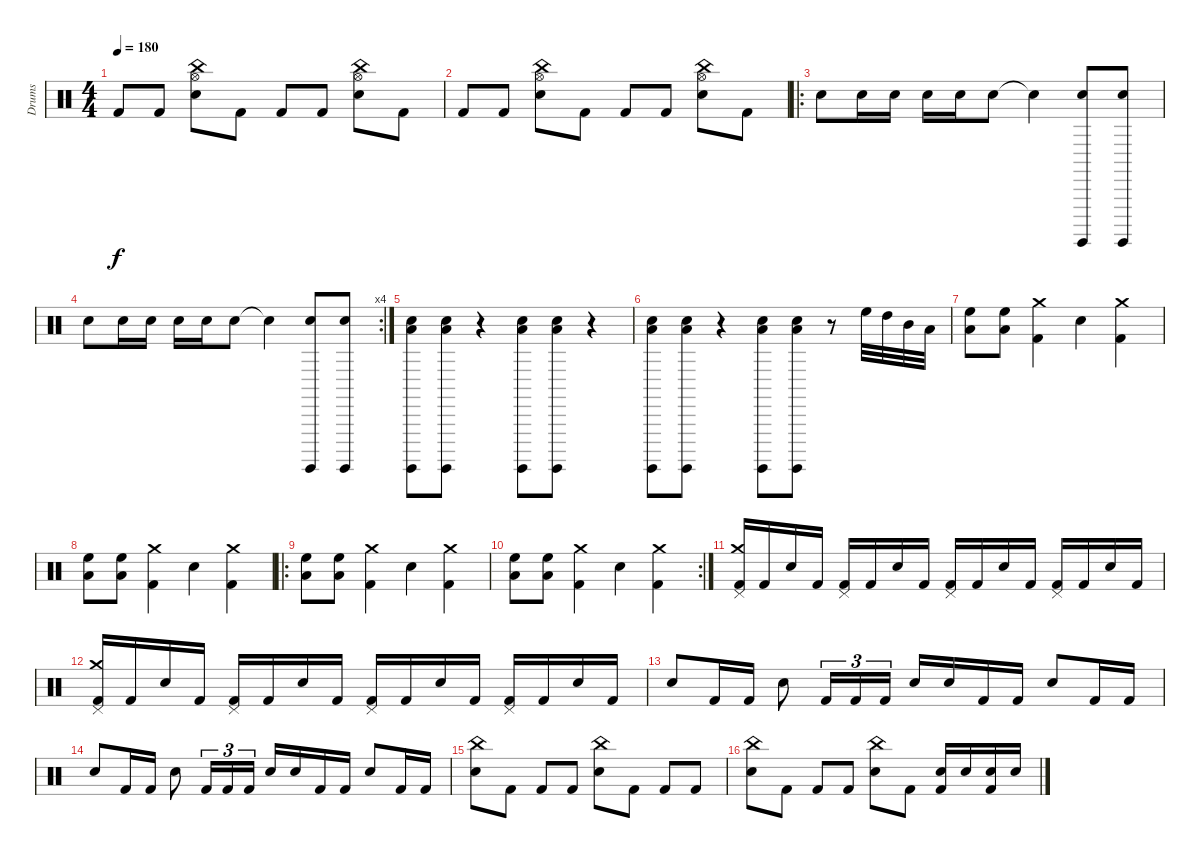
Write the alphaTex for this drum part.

\track ("Drums" "Drums") {instrument percussion}
\staff {score}
\articulation defaults
\ts (4 4)
\tempo 180
\clef neutral
\ks c "Kick (hit) 2".8{dy f} "Kick (hit) 2".8
("Electric Snare (hit)" "Hi-Hat (open)" "China (hit)").8 "Kick (hit) 2".8 "Kick (hit) 2".8 "Kick (hit) 2".8 ("Electric Snare (hit)" "Hi-Hat (open)" "China (hit)").8 "Kick (hit) 2".8 |
"Kick (hit) 2".8 "Kick (hit) 2".8 ("Electric Snare (hit)" "Hi-Hat (open)" "China (hit)").8 "Kick (hit) 2".8 "Kick (hit) 2".8 "Kick (hit) 2".8 ("Electric Snare (hit)" "Hi-Hat (open)" "China (hit)").8 "Kick (hit) 2".8 |
\ro "Electric Snare (hit)".8 "Electric Snare (hit)".16 "Electric Snare (hit)".16 "Electric Snare (hit)".16 "Electric Snare (hit)".16 "Electric Snare (hit)".8 "Electric Snare (hit)"{t}.4
("Electric Snare (hit)" "Surdo (hit)").8 ("Electric Snare (hit)" "Surdo (hit)").8 |
\rc 4 "Electric Snare (hit)".8 "Electric Snare (hit)".16 "Electric Snare (hit)".16 "Electric Snare (hit)".16 "Electric Snare (hit)".16 "Electric Snare (hit)".8 "Electric Snare (hit)"{t}.4
("Electric Snare (hit)" "Surdo (hit)").8 ("Electric Snare (hit)" "Surdo (hit)").8 |
("Surdo (hit)" "Electric Snare (hit)" "Low Tom (hit)").8 ("Surdo (hit)" "Electric Snare (hit)" "Low Tom (hit)").8 r.4 ("Surdo (hit)" "Electric Snare (hit)" "Low Tom (hit)").8 ("Surdo (hit)" "Electric Snare (hit)" "Low Tom (hit)").8 r.4 |
("Surdo (hit)" "Electric Snare (hit)" "Low Tom (hit)").8 ("Surdo (hit)" "Electric Snare (hit)" "Low Tom (hit)").8 r.4 ("Surdo (hit)" "Electric Snare (hit)" "Low Tom (hit)").8 ("Surdo (hit)" "Electric Snare (hit)" "Low Tom (hit)").8 r.8 "High Floor Tom (hit)".32 "High Tom (hit)".32 "Mid Tom (hit)".32 "Low Tom (hit)".32 |
("Low Tom (hit)" "High Floor Tom (hit)").8 ("Low Tom (hit)" "High Floor Tom (hit)").8 ("Crash medium (hit)" "Kick (hit) 2").4 "Electric Snare (hit)".4 ("Kick (hit) 2" "Crash medium (hit)").4 |
("Low Tom (hit)" "High Floor Tom (hit)").8 ("Low Tom (hit)" "High Floor Tom (hit)").8 ("Crash medium (hit)" "Kick (hit) 2").4 "Electric Snare (hit)".4 ("Kick (hit) 2" "Crash medium (hit)").4 |
\ro
("Low Tom (hit)" "High Floor Tom (hit)").8 ("Low Tom (hit)" "High Floor Tom (hit)").8 ("Crash medium (hit)" "Kick (hit) 2").4 "Electric Snare (hit)".4 ("Kick (hit) 2" "Crash medium (hit)").4 |
\rc 2
("Low Tom (hit)" "High Floor Tom (hit)").8 ("Low Tom (hit)" "High Floor Tom (hit)").8 ("Crash medium (hit)" "Kick (hit) 2").4 "Electric Snare (hit)".4 ("Kick (hit) 2" "Crash medium (hit)").4 |
("Kick (hit) 2" "Pedal Hi-Hat (hit)" "Crash medium (hit)").16 "Kick (hit) 2".16 "Electric Snare (hit)".16 "Kick (hit) 2".16 ("Kick (hit) 2" "Pedal Hi-Hat (hit)").16 "Kick (hit) 2".16 "Electric Snare (hit)".16 "Kick (hit) 2".16 ("Kick (hit) 2" "Pedal Hi-Hat (hit)").16 "Kick (hit) 2".16 "Electric Snare (hit)".16 "Kick (hit) 2".16 ("Kick (hit) 2" "Pedal Hi-Hat (hit)").16 "Kick (hit) 2".16 "Electric Snare (hit)".16 "Kick (hit) 2".16 |
("Kick (hit) 2" "Pedal Hi-Hat (hit)" "Crash medium (hit)").16 "Kick (hit) 2".16 "Electric Snare (hit)".16 "Kick (hit) 2".16 ("Kick (hit) 2" "Pedal Hi-Hat (hit)").16 "Kick (hit) 2".16 "Electric Snare (hit)".16 "Kick (hit) 2".16 ("Kick (hit) 2" "Pedal Hi-Hat (hit)").16 "Kick (hit) 2".16 "Electric Snare (hit)".16 "Kick (hit) 2".16 ("Kick (hit) 2" "Pedal Hi-Hat (hit)").16 "Kick (hit) 2".16 "Electric Snare (hit)".16 "Kick (hit) 2".16 |
"Electric Snare (hit)".8 "Kick (hit) 2".16 "Kick (hit) 2".16 "Electric Snare (hit)".8 "Kick (hit) 2".16{tu (3 2)} "Kick (hit) 2".16{tu (3 2)} "Kick (hit) 2".16{tu (3 2)} "Electric Snare (hit)".16 "Electric Snare (hit)".16 "Kick (hit) 2".16 "Kick (hit) 2".16 "Electric Snare (hit)".8 "Kick (hit) 2".16 "Kick (hit) 2".16 |
"Electric Snare (hit)".8 "Kick (hit) 2".16 "Kick (hit) 2".16 "Electric Snare (hit)".8 "Kick (hit) 2".16{tu (3 2)} "Kick (hit) 2".16{tu (3 2)} "Kick (hit) 2".16{tu (3 2)} "Electric Snare (hit)".16 "Electric Snare (hit)".16 "Kick (hit) 2".16 "Kick (hit) 2".16 "Electric Snare (hit)".8 "Kick (hit) 2".16 "Kick (hit) 2".16 |
("China (hit)" "Electric Snare (hit)").8 "Kick (hit) 2".8 "Kick (hit) 2".8 "Kick (hit) 2".8 ("China (hit)" "Electric Snare (hit)").8 "Kick (hit) 2".8 "Kick (hit) 2".8 "Kick (hit) 2".8 |
("China (hit)" "Electric Snare (hit)").8 "Kick (hit) 2".8 "Kick (hit) 2".8 "Kick (hit) 2".8 ("China (hit)" "Electric Snare (hit)").8 "Kick (hit) 2".8 ("Kick (hit) 2" "Electric Snare (hit)").16 "Electric Snare (hit)".16 ("Kick (hit) 2" "Electric Snare (hit)").16 "Electric Snare (hit)".16
